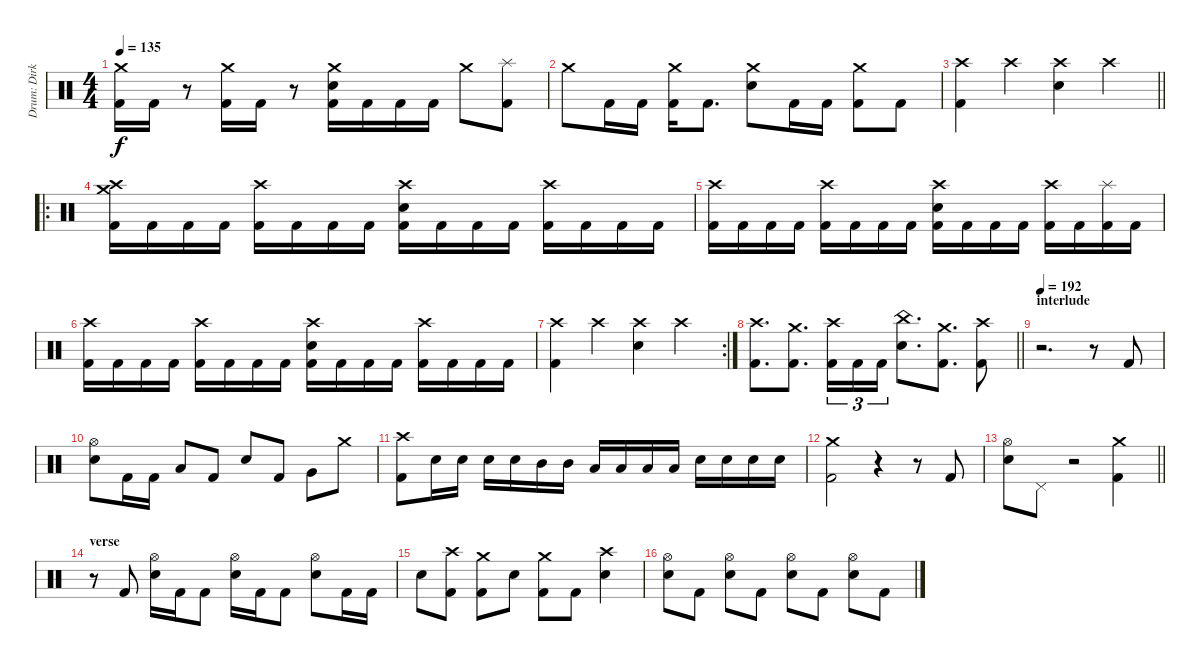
\track ("Drum: Dirk" "Drum: Dirk") {instrument percussion}
\staff {score}
\articulation defaults
\ts (4 4)
\tempo 135
\clef neutral
\ks c
("Crash medium (hit)" "Kick (hit) 2").16{dy f} "Kick (hit) 2".16 r.8 ("Crash medium (hit)" "Kick (hit) 2").16 "Kick (hit) 2".16 r.8 ("Crash medium (hit)" "Electric Snare (hit)" "Kick (hit) 2").16 "Kick (hit) 2".16 "Kick (hit) 2".16 "Kick (hit) 2".16 "Crash medium (hit)".8 ("Splash (hit)" "Kick (hit) 2").8 |
"Crash medium (hit)".8 "Kick (hit) 2".16 "Kick (hit) 2".16 ("Crash medium (hit)" "Kick (hit) 2").16 "Kick (hit) 2".8{d} ("Crash medium (hit)" "Electric Snare (hit)").8 "Kick (hit) 2".16 "Kick (hit) 2".16 ("Crash medium (hit)" "Kick (hit) 2").8 "Kick (hit) 2".8 |
\barLineRight lightlight
("Crash high (hit)" "Kick (hit) 2").4 "Crash high (hit)".4 ("Crash high (hit)" "Electric Snare (hit)").4 "Crash high (hit)".4 |
\ro
("Crash high (hit)" "Crash medium (hit)" "Kick (hit) 2").16 "Kick (hit) 2".16 "Kick (hit) 2".16 "Kick (hit) 2".16 ("Crash high (hit)" "Kick (hit) 2").16 "Kick (hit) 2".16 "Kick (hit) 2".16 "Kick (hit) 2".16 ("Crash high (hit)" "Electric Snare (hit)" "Kick (hit) 2").16 "Kick (hit) 2".16 "Kick (hit) 2".16 "Kick (hit) 2".16 ("Crash high (hit)" "Kick (hit) 2").16 "Kick (hit) 2".16 "Kick (hit) 2".16 "Kick (hit) 2".16 |
("Crash high (hit)" "Kick (hit) 2").16 "Kick (hit) 2".16 "Kick (hit) 2".16 "Kick (hit) 2".16 ("Crash high (hit)" "Kick (hit) 2").16 "Kick (hit) 2".16 "Kick (hit) 2".16 "Kick (hit) 2".16 ("Crash high (hit)" "Electric Snare (hit)" "Kick (hit) 2").16 "Kick (hit) 2".16 "Kick (hit) 2".16 "Kick (hit) 2".16 ("Crash high (hit)" "Kick (hit) 2").16 "Kick (hit) 2".16 ("Splash (hit)" "Kick (hit) 2").16 "Kick (hit) 2".16 |
("Crash high (hit)" "Kick (hit) 2").16 "Kick (hit) 2".16 "Kick (hit) 2".16 "Kick (hit) 2".16 ("Crash high (hit)" "Kick (hit) 2").16 "Kick (hit) 2".16 "Kick (hit) 2".16 "Kick (hit) 2".16 ("Crash high (hit)" "Electric Snare (hit)" "Kick (hit) 2").16 "Kick (hit) 2".16 "Kick (hit) 2".16 "Kick (hit) 2".16 ("Crash high (hit)" "Kick (hit) 2").16 "Kick (hit) 2".16 "Kick (hit) 2".16 "Kick (hit) 2".16 |
\rc 2
("Crash high (hit)" "Kick (hit) 2").4 "Crash high (hit)".4 ("Crash high (hit)" "Electric Snare (hit)").4 "Crash high (hit)".4 |
\barLineRight lightlight
("Crash high (hit)" "Kick (hit) 2").8{d} ("Crash medium (hit)" "Kick (hit) 2").8{d} ("Crash high (hit)" "Kick (hit) 2").16{tu (3 2)} "Kick (hit) 2".16{tu (3 2)} "Kick (hit) 2".16{tu (3 2)} ("China (hit)" "Electric Snare (hit)").8{d} ("Crash medium (hit)" "Kick (hit) 2").8{d} ("Crash high (hit)" "Kick (hit) 2").8 |
\section ("" "interlude")
\tempo 192
r.2{d} r.8 "Kick (hit) 2".8 |
("Hi-Hat (open)" "Electric Snare (hit)").8 "Kick (hit) 2".16 "Kick (hit) 2".16 "Low Tom (hit)".8 "Kick (hit) 2".8 "Electric Snare (hit)".8 "Kick (hit) 2".8 "Very Low Tom (hit)".8 "Crash medium (hit)".8 |
("Crash high (hit)" "Kick (hit) 2").8 "Electric Snare (hit)".16 "Electric Snare (hit)".16 "Electric Snare (hit)".16 "Electric Snare (hit)".16 "Mid Tom (hit)".16 "Mid Tom (hit)".16 "Low Tom (hit)".16 "Low Tom (hit)".16 "Low Tom (hit)".16 "Low Tom (hit)".16 "Electric Snare (hit)".16 "Electric Snare (hit)".16 "Electric Snare (hit)".16 "Electric Snare (hit)".16 |
("Crash medium (hit)" "Kick (hit) 2").2 r.4 r.8 "Kick (hit) 2".8 |
\barLineRight lightlight
("Hi-Hat (open)" "Electric Snare (hit)").8 "Pedal Hi-Hat (hit)".8 r.2 ("Crash medium (hit)" "Kick (hit) 2").4 |
\section ("" "verse")
r.8 "Kick (hit) 2".8 ("Hi-Hat (open)" "Electric Snare (hit)").16 "Kick (hit) 2".16 "Kick (hit) 2".8 ("Hi-Hat (open)" "Electric Snare (hit)").16 "Kick (hit) 2".16 "Kick (hit) 2".8 ("Hi-Hat (open)" "Electric Snare (hit)").8 "Kick (hit) 2".16 "Kick (hit) 2".16 |
"Electric Snare (hit)".8 ("Crash high (hit)" "Kick (hit) 2").8 ("Crash medium (hit)" "Kick (hit) 2").8 "Electric Snare (hit)".8 ("Crash medium (hit)" "Kick (hit) 2").8 "Kick (hit) 2".8 ("Crash high (hit)" "Electric Snare (hit)").4 |
("Hi-Hat (open)" "Electric Snare (hit)").8 "Kick (hit) 2".8 ("Hi-Hat (open)" "Electric Snare (hit)").8 "Kick (hit) 2".8 ("Hi-Hat (open)" "Electric Snare (hit)").8 "Kick (hit) 2".8 ("Hi-Hat (open)" "Electric Snare (hit)").8 "Kick (hit) 2".8
